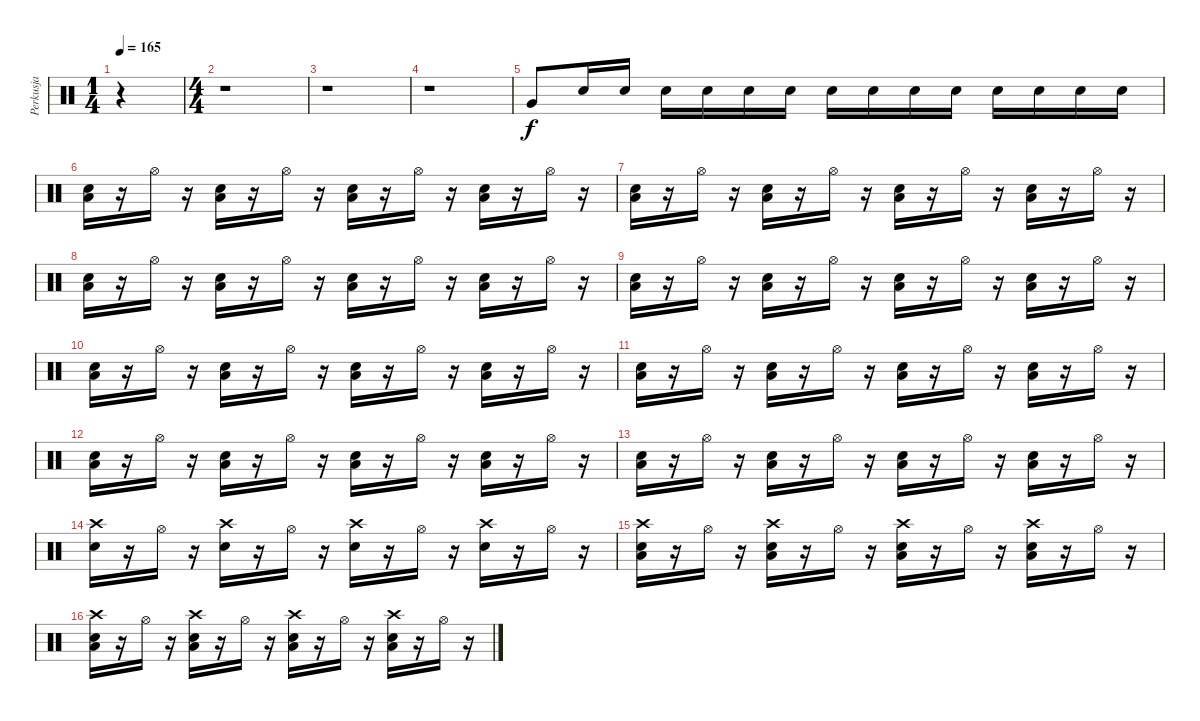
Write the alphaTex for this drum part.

\track ("Perkusja" "Perkusja") {instrument percussion}
\staff {score}
\articulation defaults
\ts (1 4)
\tempo 165
\clef neutral
\ks c
r.4{dy f} |
\ts (4 4)
r.1 |
r.1 |
r.1 |
"Very Low Tom (hit)".8 "Snare (hit) 2".16 "Snare (hit) 2".16 "Snare (hit) 2".16 "Snare (hit) 2".16 "Snare (hit) 2".16 "Snare (hit) 2".16 "Snare (hit) 2".16 "Snare (hit) 2".16 "Snare (hit) 2".16 "Snare (hit) 2".16 "Snare (hit) 2".16 "Snare (hit) 2".16 "Snare (hit) 2".16 "Snare (hit) 2".16 |
("Snare (hit) 2" "Low Tom (hit)").16 r.16 "Hi-Hat (open)".16 r.16 ("Snare (hit) 2" "Low Tom (hit)").16 r.16 "Hi-Hat (open)".16 r.16 ("Snare (hit) 2" "Low Tom (hit)").16 r.16 "Hi-Hat (open)".16 r.16 ("Snare (hit) 2" "Low Tom (hit)").16 r.16 "Hi-Hat (open)".16 r.16 |
("Snare (hit) 2" "Low Tom (hit)").16 r.16 "Hi-Hat (open)".16 r.16 ("Snare (hit) 2" "Low Tom (hit)").16 r.16 "Hi-Hat (open)".16 r.16 ("Snare (hit) 2" "Low Tom (hit)").16 r.16 "Hi-Hat (open)".16 r.16 ("Snare (hit) 2" "Low Tom (hit)").16 r.16 "Hi-Hat (open)".16 r.16 |
("Snare (hit) 2" "Low Tom (hit)").16 r.16 "Hi-Hat (open)".16 r.16 ("Snare (hit) 2" "Low Tom (hit)").16 r.16 "Hi-Hat (open)".16 r.16 ("Snare (hit) 2" "Low Tom (hit)").16 r.16 "Hi-Hat (open)".16 r.16 ("Snare (hit) 2" "Low Tom (hit)").16 r.16 "Hi-Hat (open)".16 r.16 |
("Snare (hit) 2" "Low Tom (hit)").16 r.16 "Hi-Hat (open)".16 r.16 ("Snare (hit) 2" "Low Tom (hit)").16 r.16 "Hi-Hat (open)".16 r.16 ("Snare (hit) 2" "Low Tom (hit)").16 r.16 "Hi-Hat (open)".16 r.16 ("Snare (hit) 2" "Low Tom (hit)").16 r.16 "Hi-Hat (open)".16 r.16 |
("Snare (hit) 2" "Low Tom (hit)").16 r.16 "Hi-Hat (open)".16 r.16 ("Snare (hit) 2" "Low Tom (hit)").16 r.16 "Hi-Hat (open)".16 r.16 ("Snare (hit) 2" "Low Tom (hit)").16 r.16 "Hi-Hat (open)".16 r.16 ("Snare (hit) 2" "Low Tom (hit)").16 r.16 "Hi-Hat (open)".16 r.16 |
("Snare (hit) 2" "Low Tom (hit)").16 r.16 "Hi-Hat (open)".16 r.16 ("Snare (hit) 2" "Low Tom (hit)").16 r.16 "Hi-Hat (open)".16 r.16 ("Snare (hit) 2" "Low Tom (hit)").16 r.16 "Hi-Hat (open)".16 r.16 ("Snare (hit) 2" "Low Tom (hit)").16 r.16 "Hi-Hat (open)".16 r.16 |
("Snare (hit) 2" "Low Tom (hit)").16 r.16 "Hi-Hat (open)".16 r.16 ("Snare (hit) 2" "Low Tom (hit)").16 r.16 "Hi-Hat (open)".16 r.16 ("Snare (hit) 2" "Low Tom (hit)").16 r.16 "Hi-Hat (open)".16 r.16 ("Snare (hit) 2" "Low Tom (hit)").16 r.16 "Hi-Hat (open)".16 r.16 |
("Snare (hit) 2" "Low Tom (hit)").16 r.16 "Hi-Hat (open)".16 r.16 ("Snare (hit) 2" "Low Tom (hit)").16 r.16 "Hi-Hat (open)".16 r.16 ("Snare (hit) 2" "Low Tom (hit)").16 r.16 "Hi-Hat (open)".16 r.16 ("Snare (hit) 2" "Low Tom (hit)").16 r.16 "Hi-Hat (open)".16 r.16 |
("Snare (hit) 2" "Crash high (hit)").16 r.16 "Hi-Hat (open)".16 r.16 ("Snare (hit) 2" "Crash high (hit)").16 r.16 "Hi-Hat (open)".16 r.16 ("Snare (hit) 2" "Crash high (hit)").16 r.16 "Hi-Hat (open)".16 r.16 ("Snare (hit) 2" "Crash high (hit)").16 r.16 "Hi-Hat (open)".16 r.16 |
("Snare (hit) 2" "Low Tom (hit)" "Crash high (hit)").16 r.16 "Hi-Hat (open)".16 r.16 ("Snare (hit) 2" "Low Tom (hit)" "Crash high (hit)").16 r.16 "Hi-Hat (open)".16 r.16 ("Snare (hit) 2" "Low Tom (hit)" "Crash high (hit)").16 r.16 "Hi-Hat (open)".16 r.16 ("Snare (hit) 2" "Low Tom (hit)" "Crash high (hit)").16 r.16 "Hi-Hat (open)".16 r.16 |
("Snare (hit) 2" "Low Tom (hit)" "Crash high (hit)").16 r.16 "Hi-Hat (open)".16 r.16 ("Snare (hit) 2" "Low Tom (hit)" "Crash high (hit)").16 r.16 "Hi-Hat (open)".16 r.16 ("Snare (hit) 2" "Low Tom (hit)" "Crash high (hit)").16 r.16 "Hi-Hat (open)".16 r.16 ("Snare (hit) 2" "Low Tom (hit)" "Crash high (hit)").16 r.16 "Hi-Hat (open)".16 r.16
